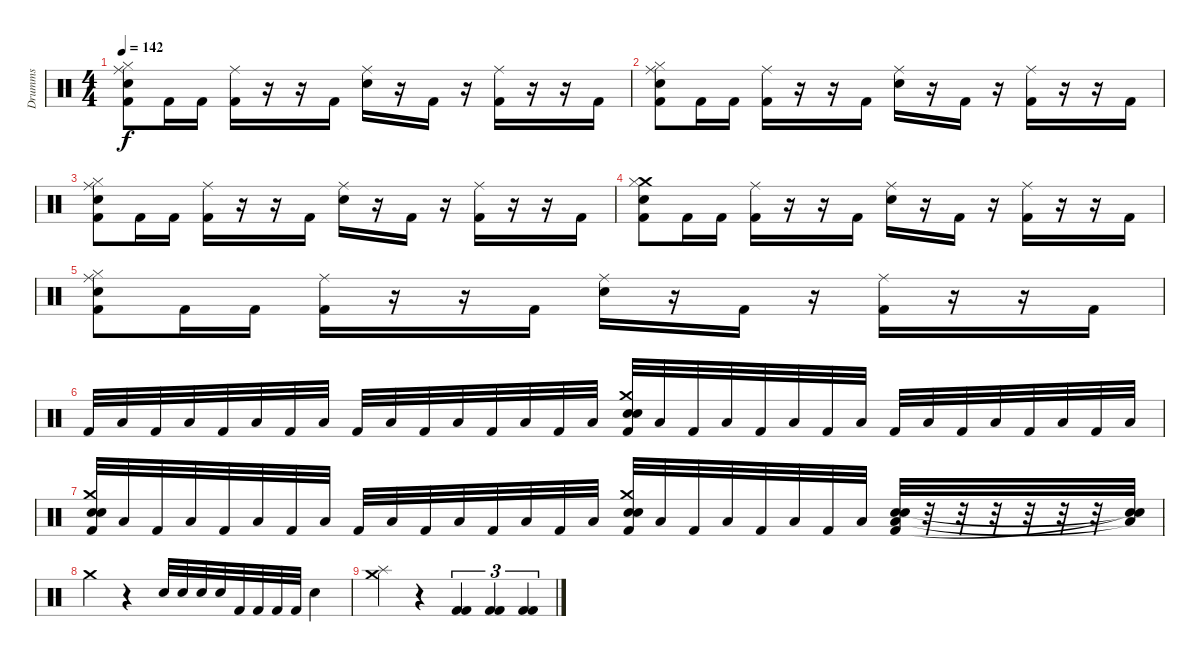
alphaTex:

\track ("Drumms" "Drumms") {instrument percussion}
\staff {score}
\articulation defaults
\ts (4 4)
\tempo 142
\clef neutral
\ks c
("Ride (middle)" "Hi-Hat (closed)" "Kick (hit) 2" "Snare (hit) 2").8{dy f} "Kick (hit) 2".16 "Kick (hit) 2".16 ("Ride (middle)" "Kick (hit) 2").16 r.16 r.16 "Kick (hit) 2".16 ("Ride (middle)" "Snare (hit) 2").16 r.16 "Kick (hit) 2".16 r.16 ("Ride (middle)" "Kick (hit) 2").16 r.16 r.16 "Kick (hit) 2".16 |
("Ride (middle)" "Hi-Hat (closed)" "Kick (hit) 2" "Snare (hit) 2").8 "Kick (hit) 2".16 "Kick (hit) 2".16 ("Ride (middle)" "Kick (hit) 2").16 r.16 r.16 "Kick (hit) 2".16 ("Ride (middle)" "Snare (hit) 2").16 r.16 "Kick (hit) 2".16 r.16 ("Ride (middle)" "Kick (hit) 2").16 r.16 r.16 "Kick (hit) 2".16 |
("Ride (middle)" "Hi-Hat (closed)" "Kick (hit) 2" "Snare (hit) 2").8 "Kick (hit) 2".16 "Kick (hit) 2".16 ("Ride (middle)" "Kick (hit) 2").16 r.16 r.16 "Kick (hit) 2".16 ("Ride (middle)" "Snare (hit) 2").16 r.16 "Kick (hit) 2".16 r.16 ("Ride (middle)" "Kick (hit) 2").16 r.16 r.16 "Kick (hit) 2".16 |
("Crash medium (hit)" "Hi-Hat (closed)" "Kick (hit) 2" "Snare (hit) 2").8 "Kick (hit) 2".16 "Kick (hit) 2".16 ("Ride (middle)" "Kick (hit) 2").16 r.16 r.16 "Kick (hit) 2".16 ("Ride (middle)" "Snare (hit) 2").16 r.16 "Kick (hit) 2".16 r.16 ("Ride (middle)" "Kick (hit) 2").16 r.16 r.16 "Kick (hit) 2".16 |
("Ride (middle)" "Hi-Hat (closed)" "Kick (hit) 2" "Snare (hit) 2").8 "Kick (hit) 2".16 "Kick (hit) 2".16 ("Ride (middle)" "Kick (hit) 2").16 r.16 r.16 "Kick (hit) 2".16 ("Ride (middle)" "Snare (hit) 2").16 r.16 "Kick (hit) 2".16 r.16 ("Ride (middle)" "Kick (hit) 2").16 r.16 r.16 "Kick (hit) 2".16 |
"Kick (hit) 2".32 "Low Floor Tom (hit)".32 "Kick (hit) 2".32 "Low Floor Tom (hit)".32 "Kick (hit) 2".32 "Low Floor Tom (hit)".32 "Kick (hit) 2".32 "Low Floor Tom (hit)".32 "Kick (hit) 2".32 "Low Floor Tom (hit)".32 "Kick (hit) 2".32 "Low Floor Tom (hit)".32 "Kick (hit) 2".32 "Low Floor Tom (hit)".32 "Kick (hit) 2".32 "Low Floor Tom (hit)".32 ("Crash medium (hit)" "Snare (hit) 2" "Kick (hit) 2" "Electric Snare (hit)").32 "Low Floor Tom (hit)".32 "Kick (hit) 2".32 "Low Floor Tom (hit)".32 "Kick (hit) 2".32 "Low Floor Tom (hit)".32 "Kick (hit) 2".32 "Low Floor Tom (hit)".32 "Kick (hit) 2".32 "Low Floor Tom (hit)".32 "Kick (hit) 2".32 "Low Floor Tom (hit)".32 "Kick (hit) 2".32 "Low Floor Tom (hit)".32 "Kick (hit) 2".32 "Low Floor Tom (hit)".32 |
("Crash medium (hit)" "Snare (hit) 2" "Kick (hit) 2" "Electric Snare (hit)").32 "Low Floor Tom (hit)".32 "Kick (hit) 2".32 "Low Floor Tom (hit)".32 "Kick (hit) 2".32 "Low Floor Tom (hit)".32 "Kick (hit) 2".32 "Low Floor Tom (hit)".32 "Kick (hit) 2".32 "Low Floor Tom (hit)".32 "Kick (hit) 2".32 "Low Floor Tom (hit)".32 "Kick (hit) 2".32 "Low Floor Tom (hit)".32 "Kick (hit) 2".32 "Low Floor Tom (hit)".32 ("Crash medium (hit)" "Snare (hit) 2" "Kick (hit) 2" "Electric Snare (hit)").32 "Low Floor Tom (hit)".32 "Kick (hit) 2".32 "Low Floor Tom (hit)".32 "Kick (hit) 2".32 "Low Floor Tom (hit)".32 "Kick (hit) 2".32 "Low Floor Tom (hit)".32 ("Low Floor Tom (hit)" "Snare (hit) 2" "Kick (hit) 2" "Electric Snare (hit)").32 r.32 r.32 r.32 r.32 r.32 r.32 ("Low Floor Tom (hit)"{t} "Snare (hit)"{t} "Snare (hit)"{t}).32 |
"Crash medium (hit)".4 r.4 "Electric Snare (hit)".32 "Snare (hit) 2".32 "Electric Snare (hit)".32 "Snare (hit) 2".32 "Kick (hit) 2".32 "Kick (hit) 2".32 "Kick (hit) 2".32 "Kick (hit) 2".32 "Snare (hit) 2".4 |
("Crash medium (hit)" "Splash (hit)").4 r.4 ("Kick (hit) 2" "Kick (hit) 2").4{tu (3 2)} ("Kick (hit) 2" "Kick (hit) 2").4{tu (3 2)} ("Kick (hit) 2" "Kick (hit) 2").4{tu (3 2)}
